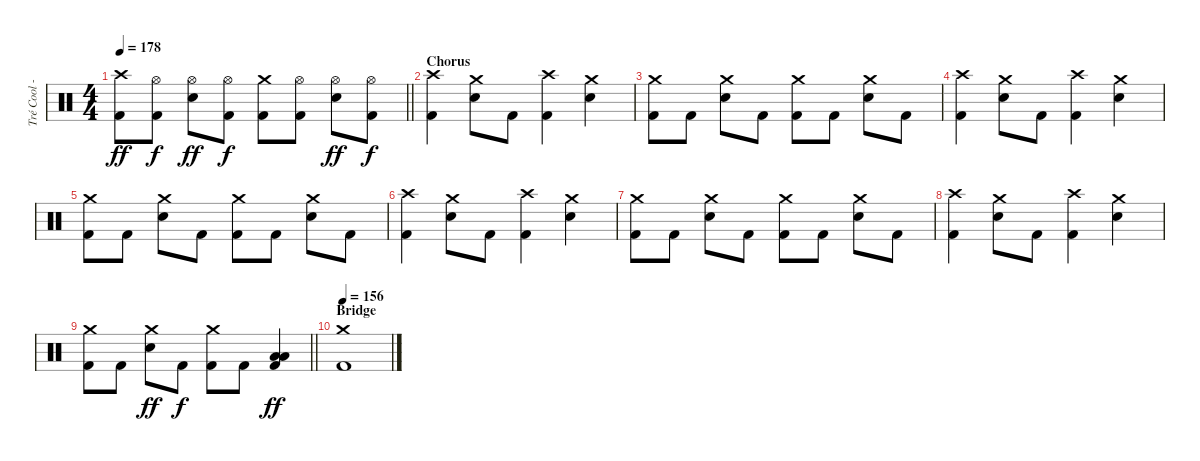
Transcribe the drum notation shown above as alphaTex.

\track ("Tré Cool - Drums" "Tré Cool -") {instrument percussion}
\staff {score}
\articulation defaults
\ts (4 4)
\tempo 178
\clef neutral
\barLineRight lightlight
\ks c
("Crash high (hit)" "Kick (hit) 2").8{dy ff} ("Hi-Hat (open)" "Kick (hit) 2").8{dy f} ("Hi-Hat (open)" "Electric Snare (hit)").8{dy ff} ("Hi-Hat (open)" "Kick (hit) 2").8{dy f} ("Crash medium (hit)" "Kick (hit) 2").8 ("Hi-Hat (open)" "Kick (hit) 2").8 ("Hi-Hat (open)" "Electric Snare (hit)").8{dy ff} ("Hi-Hat (open)" "Kick (hit) 2").8{dy f} |
\section ("" "Chorus")
("Crash high (hit)" "Kick (hit) 2").4 ("Crash medium (hit)" "Electric Snare (hit)").8 "Kick (hit) 2".8 ("Crash high (hit)" "Kick (hit) 2").4 ("Crash medium (hit)" "Electric Snare (hit)").4 |
("Crash medium (hit)" "Kick (hit) 2").8 "Kick (hit) 2".8 ("Crash medium (hit)" "Electric Snare (hit)").8 "Kick (hit) 2".8 ("Crash medium (hit)" "Kick (hit) 2").8 "Kick (hit) 2".8 ("Crash medium (hit)" "Electric Snare (hit)").8 "Kick (hit) 2".8 |
("Crash high (hit)" "Kick (hit) 2").4 ("Crash medium (hit)" "Electric Snare (hit)").8 "Kick (hit) 2".8 ("Crash high (hit)" "Kick (hit) 2").4 ("Crash medium (hit)" "Electric Snare (hit)").4 |
("Crash medium (hit)" "Kick (hit) 2").8 "Kick (hit) 2".8 ("Crash medium (hit)" "Electric Snare (hit)").8 "Kick (hit) 2".8 ("Crash medium (hit)" "Kick (hit) 2").8 "Kick (hit) 2".8 ("Crash medium (hit)" "Electric Snare (hit)").8 "Kick (hit) 2".8 |
("Crash high (hit)" "Kick (hit) 2").4 ("Crash medium (hit)" "Electric Snare (hit)").8 "Kick (hit) 2".8 ("Crash high (hit)" "Kick (hit) 2").4 ("Crash medium (hit)" "Electric Snare (hit)").4 |
("Crash medium (hit)" "Kick (hit) 2").8 "Kick (hit) 2".8 ("Crash medium (hit)" "Electric Snare (hit)").8 "Kick (hit) 2".8 ("Crash medium (hit)" "Kick (hit) 2").8 "Kick (hit) 2".8 ("Crash medium (hit)" "Electric Snare (hit)").8 "Kick (hit) 2".8 |
("Crash high (hit)" "Kick (hit) 2").4 ("Crash medium (hit)" "Electric Snare (hit)").8 "Kick (hit) 2".8 ("Crash high (hit)" "Kick (hit) 2").4 ("Crash medium (hit)" "Electric Snare (hit)").4 |
\barLineRight lightlight
("Crash medium (hit)" "Kick (hit) 2").8 "Kick (hit) 2".8 ("Crash medium (hit)" "Electric Snare (hit)").8{dy ff} "Kick (hit) 2".8{dy f} ("Crash medium (hit)" "Kick (hit) 2").8 "Kick (hit) 2".8 ("Low Tom (hit)" "Low Floor Tom (hit)" "Kick (hit) 2").4{dy ff} |
\section ("" "Bridge")
\tempo 156
("Crash medium (hit)" "Kick (hit) 2").1
